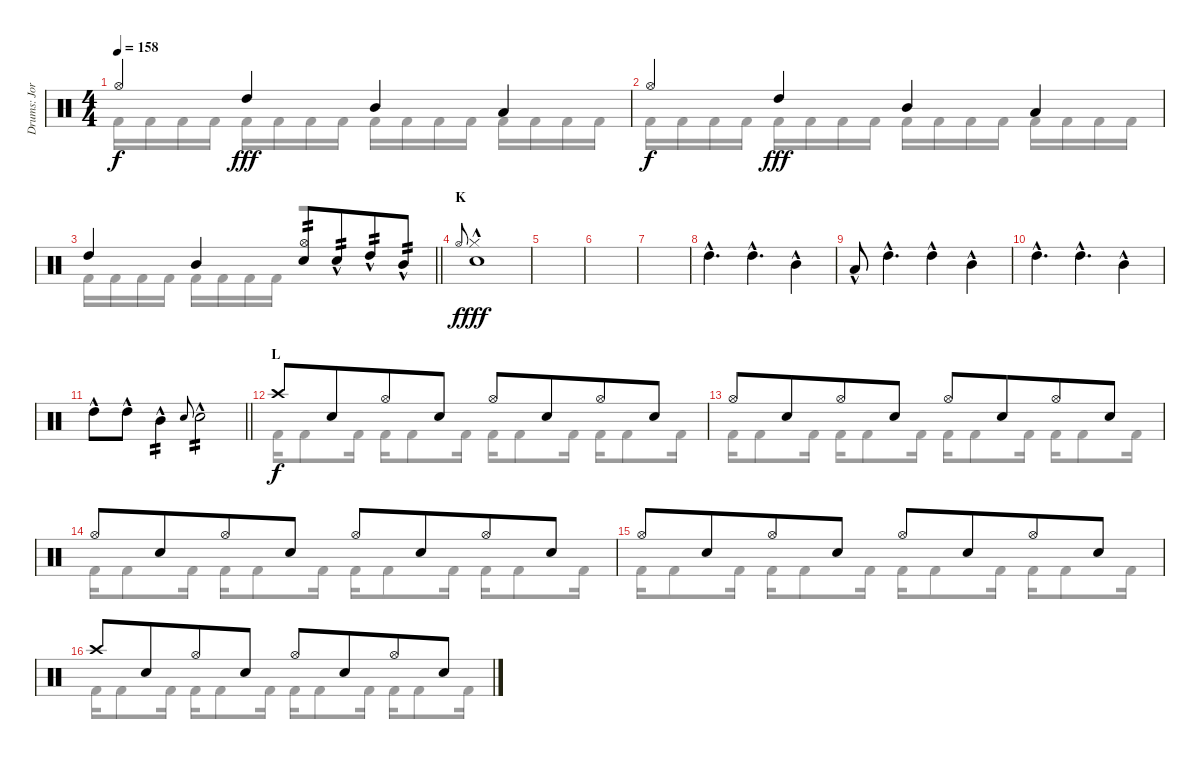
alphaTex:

\track ("Drums: Jorg" "Drums: Jor") {instrument percussion}
\staff {score}
\articulation defaults
\voice
\ts (4 4)
\tempo 158
\clef neutral
\ks c "Hi-Hat (open)".4{dy f} "High Tom (hit)".4{dy fff} "Mid Tom (hit)".4 "Low Tom (hit)".4
|
"Hi-Hat (open)".4{dy f} "High Tom (hit)".4{dy fff} "Mid Tom (hit)".4 "Low Tom (hit)".4 |
\barLineRight lightlight "High Tom (hit)".4 "Mid Tom (hit)".4
("Hi-Hat (open)" "Snare (hit) 2").8{tp 2} "Snare (hit) 2"{hac}.8{tp 2 beam merge} "High Tom (hit)"{hac}.8{tp 2} "Mid Tom (hit)"{hac}.8{tp 2} |
\section ("" "K")
"Hi-Hat (open)".8{gr onbeat dy f} ("Hi-Hat (closed)"{hac} "Snare (hit) 2"{hac}).1{dy fff} |
|
|
|
"High Tom (hit)"{hac}.4{d} "High Tom (hit)"{hac}.4{d} "Mid Tom (hit)"{hac}.4 |
"Low Tom (hit)"{hac}.8 "High Tom (hit)"{hac}.4{d} "High Tom (hit)"{hac}.4 "Mid Tom (hit)"{hac}.4 |
"High Tom (hit)"{hac}.4{d} "High Tom (hit)"{hac}.4{d} "Mid Tom (hit)"{hac}.4 |
\barLineRight lightlight "High Tom (hit)"{hac}.8 "High Tom (hit)"{hac}.8 "Mid Tom (hit)"{hac}.4{tp 2} "Electric Snare (hit)".8{gr onbeat} "Snare (hit) 2"{hac}.2{tp 2}
|
\section ("" "L")
"Crash high (hit)".8{dy f} "Snare (hit) 2".8{beam merge} "Hi-Hat (open)".8 "Snare (hit) 2".8 "Hi-Hat (open)".8 "Snare (hit) 2".8{beam merge} "Hi-Hat (open)".8 "Snare (hit) 2".8 |
"Hi-Hat (open)".8 "Snare (hit) 2".8{beam merge} "Hi-Hat (open)".8 "Snare (hit) 2".8 "Hi-Hat (open)".8 "Snare (hit) 2".8{beam merge} "Hi-Hat (open)".8 "Snare (hit) 2".8 |
"Hi-Hat (open)".8 "Snare (hit) 2".8{beam merge} "Hi-Hat (open)".8 "Snare (hit) 2".8 "Hi-Hat (open)".8 "Snare (hit) 2".8{beam merge} "Hi-Hat (open)".8 "Snare (hit) 2".8 |
"Hi-Hat (open)".8 "Snare (hit) 2".8{beam merge} "Hi-Hat (open)".8 "Snare (hit) 2".8 "Hi-Hat (open)".8 "Snare (hit) 2".8{beam merge} "Hi-Hat (open)".8 "Snare (hit) 2".8 |
"Crash high (hit)".8 "Snare (hit) 2".8{beam merge} "Hi-Hat (open)".8 "Snare (hit) 2".8 "Hi-Hat (open)".8 "Snare (hit) 2".8{beam merge} "Hi-Hat (open)".8 "Snare (hit) 2".8
\voice
\clef neutral
\ottava regular
\simile none
\ks c "Kick (hit) 2".16{dy f} "Kick (hit) 2".16 "Kick (hit) 2".16 "Kick (hit) 2".16 "Kick (hit) 2".16 "Kick (hit) 2".16 "Kick (hit) 2".16 "Kick (hit) 2".16 "Kick (hit) 2".16 "Kick (hit) 2".16 "Kick (hit) 2".16 "Kick (hit) 2".16 "Kick (hit) 2".16 "Kick (hit) 2".16 "Kick (hit) 2".16 "Kick (hit) 2".16
|
"Kick (hit) 2".16 "Kick (hit) 2".16 "Kick (hit) 2".16 "Kick (hit) 2".16 "Kick (hit) 2".16 "Kick (hit) 2".16 "Kick (hit) 2".16 "Kick (hit) 2".16 "Kick (hit) 2".16 "Kick (hit) 2".16 "Kick (hit) 2".16 "Kick (hit) 2".16 "Kick (hit) 2".16 "Kick (hit) 2".16 "Kick (hit) 2".16 "Kick (hit) 2".16 |
\barLineRight lightlight "Kick (hit) 2".16 "Kick (hit) 2".16 "Kick (hit) 2".16 "Kick (hit) 2".16 "Kick (hit) 2".16 "Kick (hit) 2".16 "Kick (hit) 2".16 "Kick (hit) 2".16
r.2 |
|
|
|
|
|
|
|
\barLineRight lightlight
|
"Kick (hit) 2".16 "Kick (hit) 2".8 "Kick (hit) 2".16 "Kick (hit) 2".16 "Kick (hit) 2".8 "Kick (hit) 2".16 "Kick (hit) 2".16 "Kick (hit) 2".8 "Kick (hit) 2".16 "Kick (hit) 2".16 "Kick (hit) 2".8 "Kick (hit) 2".16 |
"Kick (hit) 2".16 "Kick (hit) 2".8 "Kick (hit) 2".16 "Kick (hit) 2".16 "Kick (hit) 2".8 "Kick (hit) 2".16 "Kick (hit) 2".16 "Kick (hit) 2".8 "Kick (hit) 2".16 "Kick (hit) 2".16 "Kick (hit) 2".8 "Kick (hit) 2".16 |
"Kick (hit) 2".16 "Kick (hit) 2".8 "Kick (hit) 2".16 "Kick (hit) 2".16 "Kick (hit) 2".8 "Kick (hit) 2".16 "Kick (hit) 2".16 "Kick (hit) 2".8 "Kick (hit) 2".16 "Kick (hit) 2".16 "Kick (hit) 2".8 "Kick (hit) 2".16 |
"Kick (hit) 2".16 "Kick (hit) 2".8 "Kick (hit) 2".16 "Kick (hit) 2".16 "Kick (hit) 2".8 "Kick (hit) 2".16 "Kick (hit) 2".16 "Kick (hit) 2".8 "Kick (hit) 2".16 "Kick (hit) 2".16 "Kick (hit) 2".8 "Kick (hit) 2".16 |
"Kick (hit) 2".16 "Kick (hit) 2".8 "Kick (hit) 2".16 "Kick (hit) 2".16 "Kick (hit) 2".8 "Kick (hit) 2".16 "Kick (hit) 2".16 "Kick (hit) 2".8 "Kick (hit) 2".16 "Kick (hit) 2".16 "Kick (hit) 2".8 "Kick (hit) 2".16
